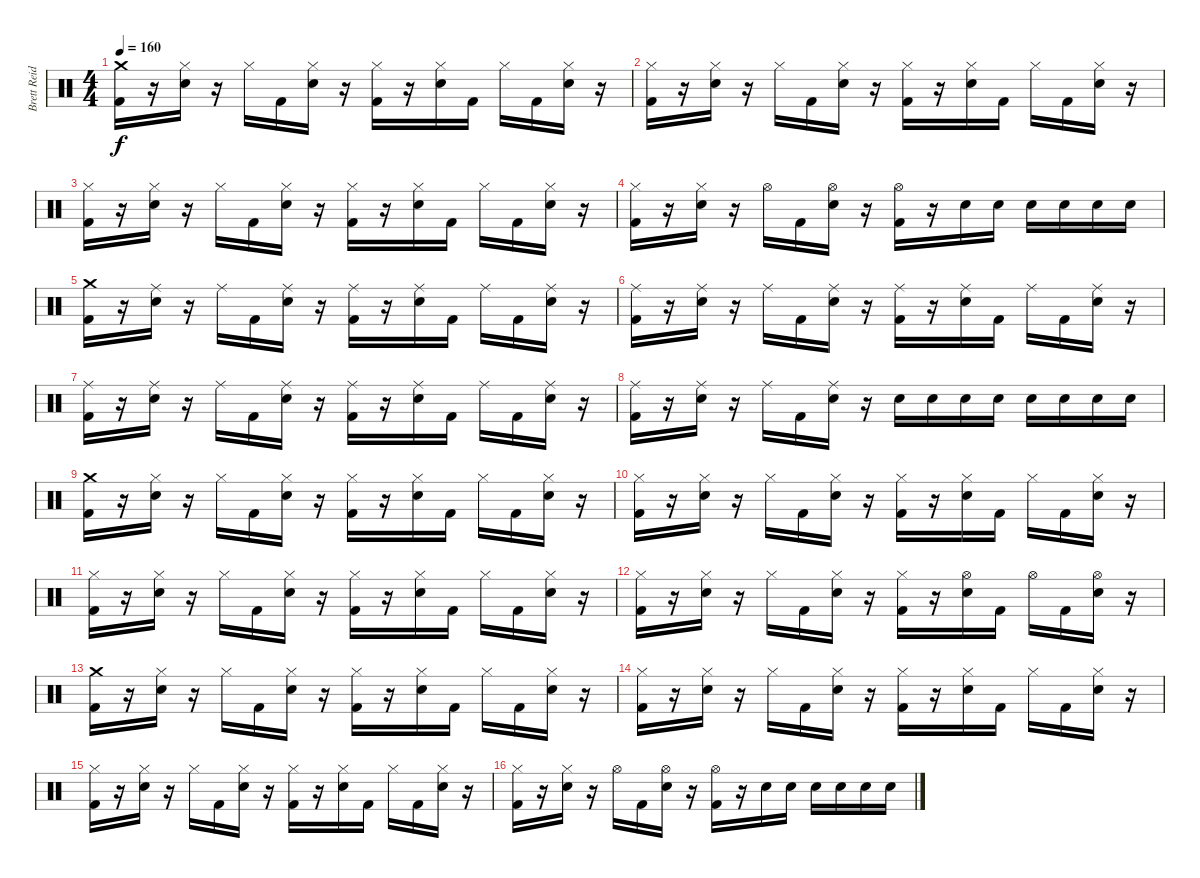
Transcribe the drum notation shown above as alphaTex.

\track ("Brett Reid" "Brett Reid") {instrument percussion}
\staff {score}
\articulation defaults
\ts (4 4)
\tempo 160
\clef neutral
\ks c
("Crash medium (hit)" "Kick (hit) 2").16{dy f} r.16 ("Hi-Hat (closed)" "Snare (hit) 2").16 r.16 "Hi-Hat (closed)".16 "Kick (hit) 2".16 ("Hi-Hat (closed)" "Snare (hit) 2").16 r.16 ("Hi-Hat (closed)" "Kick (hit) 2").16 r.16 ("Hi-Hat (closed)" "Snare (hit) 2").16 "Kick (hit) 2".16 "Hi-Hat (closed)".16 "Kick (hit) 2".16 ("Hi-Hat (closed)" "Snare (hit) 2").16 r.16 |
("Hi-Hat (closed)" "Kick (hit) 2").16 r.16 ("Hi-Hat (closed)" "Snare (hit) 2").16 r.16 "Hi-Hat (closed)".16 "Kick (hit) 2".16 ("Hi-Hat (closed)" "Snare (hit) 2").16 r.16 ("Hi-Hat (closed)" "Kick (hit) 2").16 r.16 ("Hi-Hat (closed)" "Snare (hit) 2").16 "Kick (hit) 2".16 "Hi-Hat (closed)".16 "Kick (hit) 2".16 ("Hi-Hat (closed)" "Snare (hit) 2").16 r.16 |
("Hi-Hat (closed)" "Kick (hit) 2").16 r.16 ("Hi-Hat (closed)" "Snare (hit) 2").16 r.16 "Hi-Hat (closed)".16 "Kick (hit) 2".16 ("Hi-Hat (closed)" "Snare (hit) 2").16 r.16 ("Hi-Hat (closed)" "Kick (hit) 2").16 r.16 ("Hi-Hat (closed)" "Snare (hit) 2").16 "Kick (hit) 2".16 "Hi-Hat (closed)".16 "Kick (hit) 2".16 ("Hi-Hat (closed)" "Snare (hit) 2").16 r.16 |
("Hi-Hat (closed)" "Kick (hit) 2").16 r.16 ("Hi-Hat (closed)" "Snare (hit) 2").16 r.16 "Hi-Hat (open)".16 "Kick (hit) 2".16 ("Hi-Hat (open)" "Snare (hit) 2").16 r.16 ("Hi-Hat (open)" "Kick (hit) 2").16 r.16 "Snare (hit) 2".16 "Snare (hit) 2".16 "Snare (hit) 2".16 "Snare (hit) 2".16 "Snare (hit) 2".16 "Snare (hit) 2".16 |
("Crash medium (hit)" "Kick (hit) 2").16 r.16 ("Ride (middle)" "Snare (hit) 2").16 r.16 "Ride (middle)".16 "Kick (hit) 2".16 ("Ride (middle)" "Snare (hit) 2").16 r.16 ("Ride (middle)" "Kick (hit) 2").16 r.16 ("Ride (middle)" "Snare (hit) 2").16 "Kick (hit) 2".16 "Ride (middle)".16 "Kick (hit) 2".16 ("Ride (middle)" "Snare (hit) 2").16 r.16 |
("Ride (middle)" "Kick (hit) 2").16 r.16 ("Ride (middle)" "Snare (hit) 2").16 r.16 "Ride (middle)".16 "Kick (hit) 2".16 ("Ride (middle)" "Snare (hit) 2").16 r.16 ("Ride (middle)" "Kick (hit) 2").16 r.16 ("Ride (middle)" "Snare (hit) 2").16 "Kick (hit) 2".16 "Ride (middle)".16 "Kick (hit) 2".16 ("Ride (middle)" "Snare (hit) 2").16 r.16 |
("Ride (middle)" "Kick (hit) 2").16 r.16 ("Ride (middle)" "Snare (hit) 2").16 r.16 "Ride (middle)".16 "Kick (hit) 2".16 ("Ride (middle)" "Snare (hit) 2").16 r.16 ("Ride (middle)" "Kick (hit) 2").16 r.16 ("Ride (middle)" "Snare (hit) 2").16 "Kick (hit) 2".16 "Ride (middle)".16 "Kick (hit) 2".16 ("Ride (middle)" "Snare (hit) 2").16 r.16 |
("Ride (middle)" "Kick (hit) 2").16 r.16 ("Ride (middle)" "Snare (hit) 2").16 r.16 "Ride (middle)".16 "Kick (hit) 2".16 ("Ride (middle)" "Snare (hit) 2").16 r.16 "Snare (hit) 2".16 "Snare (hit) 2".16 "Snare (hit) 2".16 "Snare (hit) 2".16 "Snare (hit) 2".16 "Snare (hit) 2".16 "Snare (hit) 2".16 "Snare (hit) 2".16 |
("Crash medium (hit)" "Kick (hit) 2").16 r.16 ("Hi-Hat (closed)" "Snare (hit) 2").16 r.16 "Hi-Hat (closed)".16 "Kick (hit) 2".16 ("Hi-Hat (closed)" "Snare (hit) 2").16 r.16 ("Hi-Hat (closed)" "Kick (hit) 2").16 r.16 ("Hi-Hat (closed)" "Snare (hit) 2").16 "Kick (hit) 2".16 "Hi-Hat (closed)".16 "Kick (hit) 2".16 ("Hi-Hat (closed)" "Snare (hit) 2").16 r.16 |
("Hi-Hat (closed)" "Kick (hit) 2").16 r.16 ("Hi-Hat (closed)" "Snare (hit) 2").16 r.16 "Hi-Hat (closed)".16 "Kick (hit) 2".16 ("Hi-Hat (closed)" "Snare (hit) 2").16 r.16 ("Hi-Hat (closed)" "Kick (hit) 2").16 r.16 ("Hi-Hat (closed)" "Snare (hit) 2").16 "Kick (hit) 2".16 "Hi-Hat (closed)".16 "Kick (hit) 2".16 ("Hi-Hat (closed)" "Snare (hit) 2").16 r.16 |
("Hi-Hat (closed)" "Kick (hit) 2").16 r.16 ("Hi-Hat (closed)" "Snare (hit) 2").16 r.16 "Hi-Hat (closed)".16 "Kick (hit) 2".16 ("Hi-Hat (closed)" "Snare (hit) 2").16 r.16 ("Hi-Hat (closed)" "Kick (hit) 2").16 r.16 ("Hi-Hat (closed)" "Snare (hit) 2").16 "Kick (hit) 2".16 "Hi-Hat (closed)".16 "Kick (hit) 2".16 ("Hi-Hat (closed)" "Snare (hit) 2").16 r.16 |
("Hi-Hat (closed)" "Kick (hit) 2").16 r.16 ("Hi-Hat (closed)" "Snare (hit) 2").16 r.16 "Hi-Hat (closed)".16 "Kick (hit) 2".16 ("Hi-Hat (closed)" "Snare (hit) 2").16 r.16 ("Hi-Hat (closed)" "Kick (hit) 2").16 r.16 ("Hi-Hat (open)" "Snare (hit) 2").16 "Kick (hit) 2".16 "Hi-Hat (open)".16 "Kick (hit) 2".16 ("Hi-Hat (open)" "Snare (hit) 2").16 r.16 |
("Crash medium (hit)" "Kick (hit) 2").16 r.16 ("Hi-Hat (closed)" "Snare (hit) 2").16 r.16 "Hi-Hat (closed)".16 "Kick (hit) 2".16 ("Hi-Hat (closed)" "Snare (hit) 2").16 r.16 ("Hi-Hat (closed)" "Kick (hit) 2").16 r.16 ("Hi-Hat (closed)" "Snare (hit) 2").16 "Kick (hit) 2".16 "Hi-Hat (closed)".16 "Kick (hit) 2".16 ("Hi-Hat (closed)" "Snare (hit) 2").16 r.16 |
("Hi-Hat (closed)" "Kick (hit) 2").16 r.16 ("Hi-Hat (closed)" "Snare (hit) 2").16 r.16 "Hi-Hat (closed)".16 "Kick (hit) 2".16 ("Hi-Hat (closed)" "Snare (hit) 2").16 r.16 ("Hi-Hat (closed)" "Kick (hit) 2").16 r.16 ("Hi-Hat (closed)" "Snare (hit) 2").16 "Kick (hit) 2".16 "Hi-Hat (closed)".16 "Kick (hit) 2".16 ("Hi-Hat (closed)" "Snare (hit) 2").16 r.16 |
("Hi-Hat (closed)" "Kick (hit) 2").16 r.16 ("Hi-Hat (closed)" "Snare (hit) 2").16 r.16 "Hi-Hat (closed)".16 "Kick (hit) 2".16 ("Hi-Hat (closed)" "Snare (hit) 2").16 r.16 ("Hi-Hat (closed)" "Kick (hit) 2").16 r.16 ("Hi-Hat (closed)" "Snare (hit) 2").16 "Kick (hit) 2".16 "Hi-Hat (closed)".16 "Kick (hit) 2".16 ("Hi-Hat (closed)" "Snare (hit) 2").16 r.16 |
("Hi-Hat (closed)" "Kick (hit) 2").16 r.16 ("Hi-Hat (closed)" "Snare (hit) 2").16 r.16 "Hi-Hat (open)".16 "Kick (hit) 2".16 ("Hi-Hat (open)" "Snare (hit) 2").16 r.16 ("Hi-Hat (open)" "Kick (hit) 2").16 r.16 "Snare (hit) 2".16 "Snare (hit) 2".16 "Snare (hit) 2".16 "Snare (hit) 2".16 "Snare (hit) 2".16 "Snare (hit) 2".16
